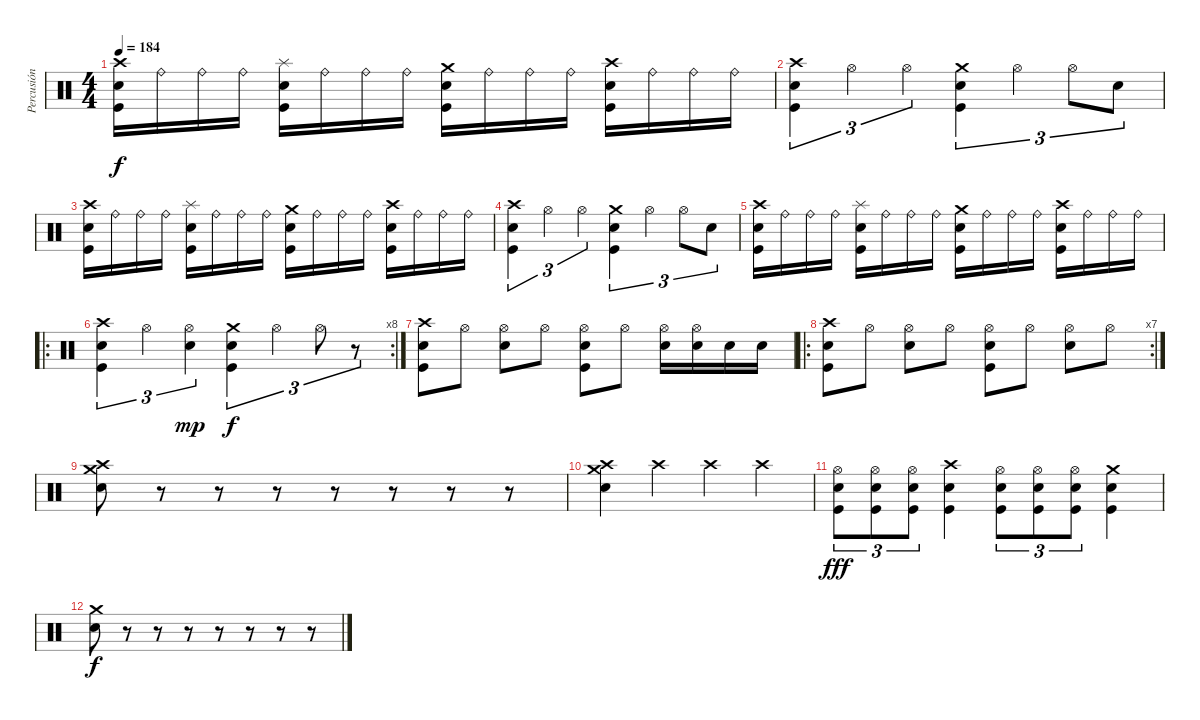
\track ("Percusión" "Percusión") {instrument percussion}
\staff {score}
\articulation defaults
\ts (4 4)
\tempo 184
\clef neutral
\ks c
("Crash high (hit)" "Electric Snare (hit)" "Kick (hit)").16{dy f} "Ride (bell)".16 "Ride (bell)".16 "Ride (bell)".16 ("Splash (hit)" "Electric Snare (hit)" "Kick (hit)").16 "Ride (bell)".16 "Ride (bell)".16 "Ride (bell)".16 ("Crash medium (hit)" "Electric Snare (hit)" "Kick (hit)").16 "Ride (bell)".16 "Ride (bell)".16 "Ride (bell)".16 ("Crash high (hit)" "Electric Snare (hit)" "Kick (hit)").16 "Ride (bell)".16 "Ride (bell)".16 "Ride (bell)".16 |
("Crash high (hit)" "Electric Snare (hit)" "Kick (hit)").4{tu (3 2)} "Hi-Hat (open)".4{tu (3 2)} "Hi-Hat (open)".4{tu (3 2)} ("Crash medium (hit)" "Electric Snare (hit)" "Kick (hit)").4{tu (3 2)} "Hi-Hat (open)".4{tu (3 2)} "Hi-Hat (open)".8{tu (3 2)} "Electric Snare (hit)".8{tu (3 2)} |
("Crash high (hit)" "Electric Snare (hit)" "Kick (hit)").16 "Ride (bell)".16 "Ride (bell)".16 "Ride (bell)".16 ("Splash (hit)" "Electric Snare (hit)" "Kick (hit)").16 "Ride (bell)".16 "Ride (bell)".16 "Ride (bell)".16 ("Crash medium (hit)" "Electric Snare (hit)" "Kick (hit)").16 "Ride (bell)".16 "Ride (bell)".16 "Ride (bell)".16 ("Crash high (hit)" "Electric Snare (hit)" "Kick (hit)").16 "Ride (bell)".16 "Ride (bell)".16 "Ride (bell)".16 |
("Crash high (hit)" "Electric Snare (hit)" "Kick (hit)").4{tu (3 2)} "Hi-Hat (open)".4{tu (3 2)} "Hi-Hat (open)".4{tu (3 2)} ("Crash medium (hit)" "Electric Snare (hit)" "Kick (hit)").4{tu (3 2)} "Hi-Hat (open)".4{tu (3 2)} "Hi-Hat (open)".8{tu (3 2)} "Electric Snare (hit)".8{tu (3 2)} |
("Crash high (hit)" "Electric Snare (hit)" "Kick (hit)").16 "Ride (bell)".16 "Ride (bell)".16 "Ride (bell)".16 ("Splash (hit)" "Electric Snare (hit)" "Kick (hit)").16 "Ride (bell)".16 "Ride (bell)".16 "Ride (bell)".16 ("Crash medium (hit)" "Electric Snare (hit)" "Kick (hit)").16 "Ride (bell)".16 "Ride (bell)".16 "Ride (bell)".16 ("Crash high (hit)" "Electric Snare (hit)" "Kick (hit)").16 "Ride (bell)".16 "Ride (bell)".16 "Ride (bell)".16 |
\ro
\rc 8
("Crash high (hit)" "Electric Snare (hit)" "Kick (hit)").4{tu (3 2)} "Hi-Hat (open)".4{tu (3 2)} ("Hi-Hat (open)" "Electric Snare (hit)").4{tu (3 2) dy mp} ("Crash medium (hit)" "Electric Snare (hit)" "Kick (hit)").4{tu (3 2) dy f} "Hi-Hat (open)".4{tu (3 2)} "Hi-Hat (open)".8{tu (3 2)} r.8{tu (3 2)} |
("Crash high (hit)" "Electric Snare (hit)" "Kick (hit)").8 "Hi-Hat (open)".8 ("Hi-Hat (open)" "Electric Snare (hit)").8 "Hi-Hat (open)".8 ("Hi-Hat (open)" "Electric Snare (hit)" "Kick (hit)").8 "Hi-Hat (open)".8 ("Hi-Hat (open)" "Electric Snare (hit)").16 ("Hi-Hat (open)" "Electric Snare (hit)").16 "Electric Snare (hit)".16 "Electric Snare (hit)".16 |
\ro
\rc 7
("Crash high (hit)" "Electric Snare (hit)" "Kick (hit)").8 "Hi-Hat (open)".8 ("Hi-Hat (open)" "Electric Snare (hit)").8 "Hi-Hat (open)".8 ("Hi-Hat (open)" "Electric Snare (hit)" "Kick (hit)").8 "Hi-Hat (open)".8 ("Hi-Hat (open)" "Electric Snare (hit)").8 "Hi-Hat (open)".8 |
("Electric Snare (hit)" "Crash high (hit)" "Crash medium (hit)").8 r.8 r.8 r.8 r.8 r.8 r.8 r.8 |
("Electric Snare (hit)" "Crash high (hit)" "Crash medium (hit)").4 "Crash high (hit)".4 "Crash high (hit)".4 "Crash high (hit)".4 |
("Hi-Hat (open)" "Electric Snare (hit)" "Kick (hit)").8{tu (3 2) dy fff} ("Hi-Hat (open)" "Electric Snare (hit)" "Kick (hit)").8{tu (3 2)} ("Hi-Hat (open)" "Electric Snare (hit)" "Kick (hit)").8{tu (3 2)} ("Crash high (hit)" "Electric Snare (hit)" "Kick (hit)").4 ("Hi-Hat (open)" "Electric Snare (hit)" "Kick (hit)").8{tu (3 2)} ("Hi-Hat (open)" "Electric Snare (hit)" "Kick (hit)").8{tu (3 2)} ("Hi-Hat (open)" "Electric Snare (hit)" "Kick (hit)").8{tu (3 2)} ("Crash medium (hit)" "Electric Snare (hit)" "Kick (hit)").4 |
("Crash medium (hit)" "Electric Snare (hit)").8{dy f} r.8 r.8 r.8 r.8 r.8 r.8 r.8
